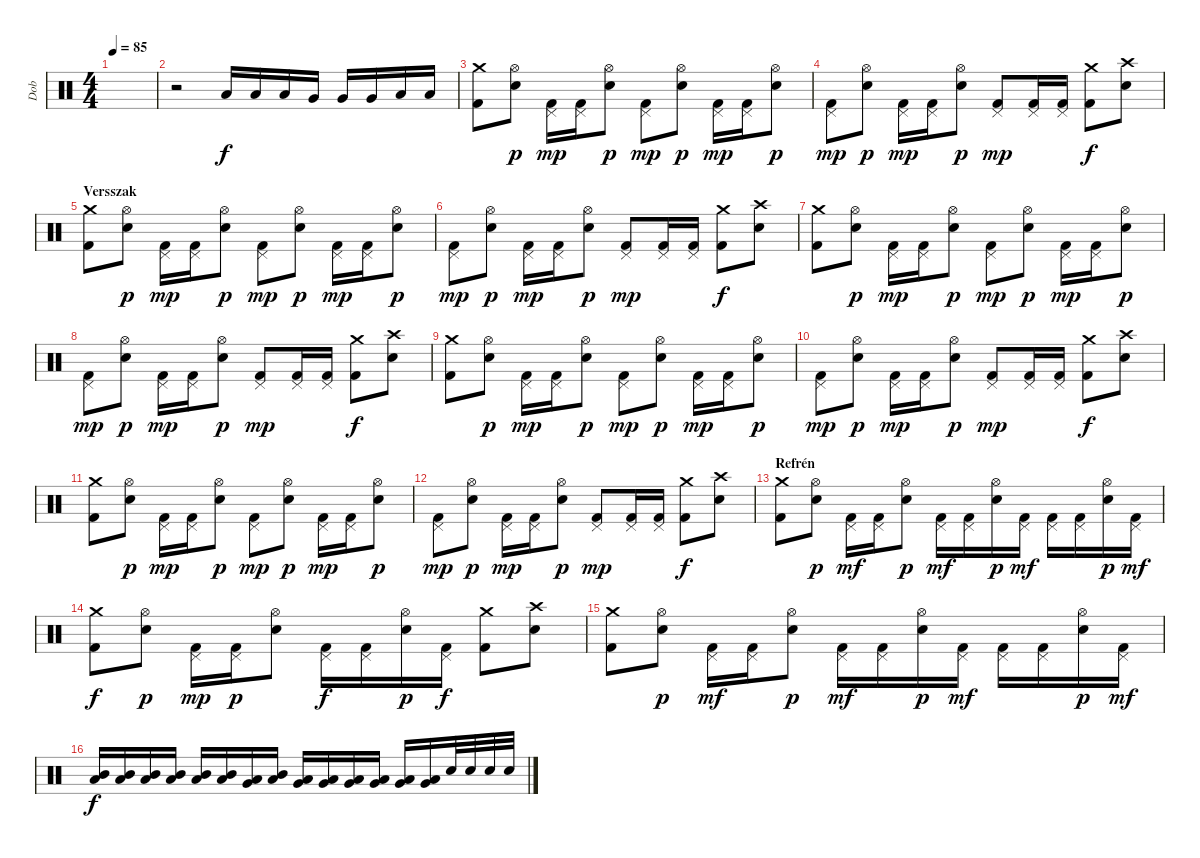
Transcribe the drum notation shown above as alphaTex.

\track ("Dob" "Dob") {instrument percussion}
\staff {score}
\articulation defaults
\ts (4 4)
\tempo 85
\clef neutral
\ks c
|
r.2 "Low Tom (hit)".16 "Low Tom (hit)".16 "Low Tom (hit)".16 "Very Low Tom (hit)".16 "Very Low Tom (hit)".16 "Very Low Tom (hit)".16 "Low Floor Tom (hit)".16 "Low Floor Tom (hit)".16 |
("Kick (hit) 2" "Crash medium (hit)").8 ("Snare (hit) 2" "Hi-Hat (open)").8{dy p} ("Kick (hit) 2" "Pedal Hi-Hat (hit)").16{dy mp} ("Kick (hit) 2" "Pedal Hi-Hat (hit)").16 ("Snare (hit) 2" "Hi-Hat (open)").8{dy p} ("Kick (hit) 2" "Pedal Hi-Hat (hit)").8{dy mp} ("Snare (hit) 2" "Hi-Hat (open)").8{dy p} ("Kick (hit) 2" "Pedal Hi-Hat (hit)").16{dy mp} ("Kick (hit) 2" "Pedal Hi-Hat (hit)").16 ("Snare (hit) 2" "Hi-Hat (open)").8{dy p} |
("Kick (hit) 2" "Pedal Hi-Hat (hit)").8{dy mp} ("Snare (hit) 2" "Hi-Hat (open)").8{dy p} ("Kick (hit) 2" "Pedal Hi-Hat (hit)").16{dy mp} ("Kick (hit) 2" "Pedal Hi-Hat (hit)").16 ("Snare (hit) 2" "Hi-Hat (open)").8{dy p} ("Kick (hit) 2" "Pedal Hi-Hat (hit)").8{dy mp} ("Kick (hit) 2" "Pedal Hi-Hat (hit)").16 ("Kick (hit) 2" "Pedal Hi-Hat (hit)").16 ("Kick (hit) 2" "Crash medium (hit)").8{dy f} ("Snare (hit) 2" "Crash high (hit)").8 |
\section ("" "Versszak")
("Kick (hit) 2" "Crash medium (hit)").8 ("Snare (hit) 2" "Hi-Hat (open)").8{dy p} ("Kick (hit) 2" "Pedal Hi-Hat (hit)").16{dy mp} ("Kick (hit) 2" "Pedal Hi-Hat (hit)").16 ("Snare (hit) 2" "Hi-Hat (open)").8{dy p} ("Kick (hit) 2" "Pedal Hi-Hat (hit)").8{dy mp} ("Snare (hit) 2" "Hi-Hat (open)").8{dy p} ("Kick (hit) 2" "Pedal Hi-Hat (hit)").16{dy mp} ("Kick (hit) 2" "Pedal Hi-Hat (hit)").16 ("Snare (hit) 2" "Hi-Hat (open)").8{dy p} |
("Kick (hit) 2" "Pedal Hi-Hat (hit)").8{dy mp} ("Snare (hit) 2" "Hi-Hat (open)").8{dy p} ("Kick (hit) 2" "Pedal Hi-Hat (hit)").16{dy mp} ("Kick (hit) 2" "Pedal Hi-Hat (hit)").16 ("Snare (hit) 2" "Hi-Hat (open)").8{dy p} ("Kick (hit) 2" "Pedal Hi-Hat (hit)").8{dy mp} ("Kick (hit) 2" "Pedal Hi-Hat (hit)").16 ("Kick (hit) 2" "Pedal Hi-Hat (hit)").16 ("Kick (hit) 2" "Crash medium (hit)").8{dy f} ("Snare (hit) 2" "Crash high (hit)").8 |
("Kick (hit) 2" "Crash medium (hit)").8 ("Snare (hit) 2" "Hi-Hat (open)").8{dy p} ("Kick (hit) 2" "Pedal Hi-Hat (hit)").16{dy mp} ("Kick (hit) 2" "Pedal Hi-Hat (hit)").16 ("Snare (hit) 2" "Hi-Hat (open)").8{dy p} ("Kick (hit) 2" "Pedal Hi-Hat (hit)").8{dy mp} ("Snare (hit) 2" "Hi-Hat (open)").8{dy p} ("Kick (hit) 2" "Pedal Hi-Hat (hit)").16{dy mp} ("Kick (hit) 2" "Pedal Hi-Hat (hit)").16 ("Snare (hit) 2" "Hi-Hat (open)").8{dy p} |
("Kick (hit) 2" "Pedal Hi-Hat (hit)").8{dy mp} ("Snare (hit) 2" "Hi-Hat (open)").8{dy p} ("Kick (hit) 2" "Pedal Hi-Hat (hit)").16{dy mp} ("Kick (hit) 2" "Pedal Hi-Hat (hit)").16 ("Snare (hit) 2" "Hi-Hat (open)").8{dy p} ("Kick (hit) 2" "Pedal Hi-Hat (hit)").8{dy mp} ("Kick (hit) 2" "Pedal Hi-Hat (hit)").16 ("Kick (hit) 2" "Pedal Hi-Hat (hit)").16 ("Kick (hit) 2" "Crash medium (hit)").8{dy f} ("Snare (hit) 2" "Crash high (hit)").8 |
("Kick (hit) 2" "Crash medium (hit)").8 ("Snare (hit) 2" "Hi-Hat (open)").8{dy p} ("Kick (hit) 2" "Pedal Hi-Hat (hit)").16{dy mp} ("Kick (hit) 2" "Pedal Hi-Hat (hit)").16 ("Snare (hit) 2" "Hi-Hat (open)").8{dy p} ("Kick (hit) 2" "Pedal Hi-Hat (hit)").8{dy mp} ("Snare (hit) 2" "Hi-Hat (open)").8{dy p} ("Kick (hit) 2" "Pedal Hi-Hat (hit)").16{dy mp} ("Kick (hit) 2" "Pedal Hi-Hat (hit)").16 ("Snare (hit) 2" "Hi-Hat (open)").8{dy p} |
("Kick (hit) 2" "Pedal Hi-Hat (hit)").8{dy mp} ("Snare (hit) 2" "Hi-Hat (open)").8{dy p} ("Kick (hit) 2" "Pedal Hi-Hat (hit)").16{dy mp} ("Kick (hit) 2" "Pedal Hi-Hat (hit)").16 ("Snare (hit) 2" "Hi-Hat (open)").8{dy p} ("Kick (hit) 2" "Pedal Hi-Hat (hit)").8{dy mp} ("Kick (hit) 2" "Pedal Hi-Hat (hit)").16 ("Kick (hit) 2" "Pedal Hi-Hat (hit)").16 ("Kick (hit) 2" "Crash medium (hit)").8{dy f} ("Snare (hit) 2" "Crash high (hit)").8 |
("Kick (hit) 2" "Crash medium (hit)").8 ("Snare (hit) 2" "Hi-Hat (open)").8{dy p} ("Kick (hit) 2" "Pedal Hi-Hat (hit)").16{dy mp} ("Kick (hit) 2" "Pedal Hi-Hat (hit)").16 ("Snare (hit) 2" "Hi-Hat (open)").8{dy p} ("Kick (hit) 2" "Pedal Hi-Hat (hit)").8{dy mp} ("Snare (hit) 2" "Hi-Hat (open)").8{dy p} ("Kick (hit) 2" "Pedal Hi-Hat (hit)").16{dy mp} ("Kick (hit) 2" "Pedal Hi-Hat (hit)").16 ("Snare (hit) 2" "Hi-Hat (open)").8{dy p} |
("Kick (hit) 2" "Pedal Hi-Hat (hit)").8{dy mp} ("Snare (hit) 2" "Hi-Hat (open)").8{dy p} ("Kick (hit) 2" "Pedal Hi-Hat (hit)").16{dy mp} ("Kick (hit) 2" "Pedal Hi-Hat (hit)").16 ("Snare (hit) 2" "Hi-Hat (open)").8{dy p} ("Kick (hit) 2" "Pedal Hi-Hat (hit)").8{dy mp} ("Kick (hit) 2" "Pedal Hi-Hat (hit)").16 ("Kick (hit) 2" "Pedal Hi-Hat (hit)").16 ("Kick (hit) 2" "Crash medium (hit)").8{dy f} ("Snare (hit) 2" "Crash high (hit)").8 |
\section ("" "Refrén")
("Kick (hit) 2" "Crash medium (hit)").8 ("Snare (hit) 2" "Hi-Hat (open)").8{dy p} ("Kick (hit) 2" "Pedal Hi-Hat (hit)").16{dy mf} ("Kick (hit) 2" "Pedal Hi-Hat (hit)").16 ("Snare (hit) 2" "Hi-Hat (open)").8{dy p} ("Kick (hit) 2" "Pedal Hi-Hat (hit)").16{dy mf} ("Kick (hit) 2" "Pedal Hi-Hat (hit)").16 ("Snare (hit) 2" "Hi-Hat (open)").16{dy p} ("Kick (hit) 2" "Pedal Hi-Hat (hit)").16{dy mf} ("Kick (hit) 2" "Pedal Hi-Hat (hit)").16 ("Kick (hit) 2" "Pedal Hi-Hat (hit)").16 ("Snare (hit) 2" "Hi-Hat (open)").16{dy p} ("Kick (hit) 2" "Pedal Hi-Hat (hit)").16{dy mf} |
("Kick (hit) 2" "Crash medium (hit)").8{dy f} ("Snare (hit) 2" "Hi-Hat (open)").8{dy p} ("Kick (hit) 2" "Pedal Hi-Hat (hit)").16{dy mp} ("Kick (hit) 2" "Pedal Hi-Hat (hit)").16{dy p} ("Snare (hit) 2" "Hi-Hat (open)").8 ("Kick (hit) 2" "Pedal Hi-Hat (hit)").16{dy f} ("Kick (hit) 2" "Pedal Hi-Hat (hit)").16 ("Snare (hit) 2" "Hi-Hat (open)").16{dy p} ("Kick (hit) 2" "Pedal Hi-Hat (hit)").16{dy f} ("Kick (hit) 2" "Crash medium (hit)").8 ("Snare (hit) 2" "Crash high (hit)").8 |
("Kick (hit) 2" "Crash medium (hit)").8 ("Snare (hit) 2" "Hi-Hat (open)").8{dy p} ("Kick (hit) 2" "Pedal Hi-Hat (hit)").16{dy mf} ("Kick (hit) 2" "Pedal Hi-Hat (hit)").16 ("Snare (hit) 2" "Hi-Hat (open)").8{dy p} ("Kick (hit) 2" "Pedal Hi-Hat (hit)").16{dy mf} ("Kick (hit) 2" "Pedal Hi-Hat (hit)").16 ("Snare (hit) 2" "Hi-Hat (open)").16{dy p} ("Kick (hit) 2" "Pedal Hi-Hat (hit)").16{dy mf} ("Kick (hit) 2" "Pedal Hi-Hat (hit)").16 ("Kick (hit) 2" "Pedal Hi-Hat (hit)").16 ("Snare (hit) 2" "Hi-Hat (open)").16{dy p} ("Kick (hit) 2" "Pedal Hi-Hat (hit)").16{dy mf} |
("Mid Tom (hit)" "Low Tom (hit)").16{dy f} ("Mid Tom (hit)" "Low Tom (hit)").16 ("Mid Tom (hit)" "Low Tom (hit)").16 ("Mid Tom (hit)" "Low Tom (hit)").16 ("Mid Tom (hit)" "Low Tom (hit)").16 ("Mid Tom (hit)" "Low Tom (hit)").16 ("Low Tom (hit)" "Very Low Tom (hit)").16 ("Mid Tom (hit)" "Low Tom (hit)").16 ("Low Tom (hit)" "Very Low Tom (hit)").16 ("Low Tom (hit)" "Very Low Tom (hit)").16 ("Low Tom (hit)" "Very Low Tom (hit)").16 ("Low Tom (hit)" "Very Low Tom (hit)").16 ("Low Tom (hit)" "Very Low Tom (hit)").16 ("Low Tom (hit)" "Very Low Tom (hit)").16 "Snare (hit) 2".32 "Snare (hit) 2".32 "Snare (hit) 2".32 "Snare (hit) 2".32
